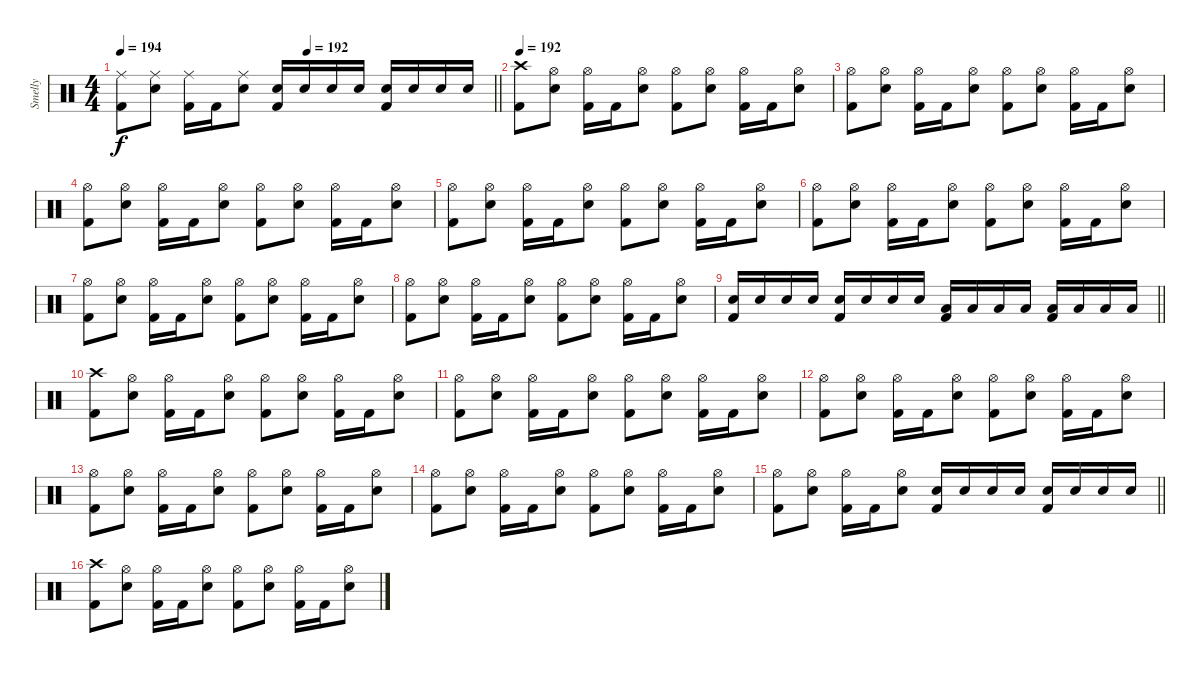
\track ("Smelly" "Smelly") {instrument percussion}
\staff {score}
\articulation defaults
\ts (4 4)
\tempo 194
\tempo (192 0.5)
\clef neutral
\barLineRight lightlight
\ks c
("Ride (middle)" "Kick (hit) 2").8{dy f} ("Ride (middle)" "Electric Snare (hit)").8 ("Ride (middle)" "Kick (hit) 2").16 "Kick (hit) 2".16 ("Ride (middle)" "Electric Snare (hit)").8 ("Electric Snare (hit)" "Kick (hit) 2").16 "Electric Snare (hit)".16 "Electric Snare (hit)".16 "Electric Snare (hit)".16 ("Electric Snare (hit)" "Kick (hit) 2").16 "Electric Snare (hit)".16 "Electric Snare (hit)".16 "Electric Snare (hit)".16 |
\section ("" "")
\tempo 192
("Crash high (hit)" "Kick (hit) 2").8 ("Hi-Hat (open)" "Electric Snare (hit)").8 ("Hi-Hat (open)" "Kick (hit) 2").16 "Kick (hit) 2".16 ("Hi-Hat (open)" "Electric Snare (hit)").8 ("Hi-Hat (open)" "Kick (hit) 2").8 ("Hi-Hat (open)" "Electric Snare (hit)").8 ("Hi-Hat (open)" "Kick (hit) 2").16 "Kick (hit) 2".16 ("Hi-Hat (open)" "Electric Snare (hit)").8 |
("Hi-Hat (open)" "Kick (hit) 2").8 ("Hi-Hat (open)" "Electric Snare (hit)").8 ("Hi-Hat (open)" "Kick (hit) 2").16 "Kick (hit) 2".16 ("Hi-Hat (open)" "Electric Snare (hit)").8 ("Hi-Hat (open)" "Kick (hit) 2").8 ("Hi-Hat (open)" "Electric Snare (hit)").8 ("Hi-Hat (open)" "Kick (hit) 2").16 "Kick (hit) 2".16 ("Hi-Hat (open)" "Electric Snare (hit)").8 |
("Hi-Hat (open)" "Kick (hit) 2").8 ("Hi-Hat (open)" "Electric Snare (hit)").8 ("Hi-Hat (open)" "Kick (hit) 2").16 "Kick (hit) 2".16 ("Hi-Hat (open)" "Electric Snare (hit)").8 ("Hi-Hat (open)" "Kick (hit) 2").8 ("Hi-Hat (open)" "Electric Snare (hit)").8 ("Hi-Hat (open)" "Kick (hit) 2").16 "Kick (hit) 2".16 ("Hi-Hat (open)" "Electric Snare (hit)").8 |
("Hi-Hat (open)" "Kick (hit) 2").8 ("Hi-Hat (open)" "Electric Snare (hit)").8 ("Hi-Hat (open)" "Kick (hit) 2").16 "Kick (hit) 2".16 ("Hi-Hat (open)" "Electric Snare (hit)").8 ("Hi-Hat (open)" "Kick (hit) 2").8 ("Hi-Hat (open)" "Electric Snare (hit)").8 ("Hi-Hat (open)" "Kick (hit) 2").16 "Kick (hit) 2".16 ("Hi-Hat (open)" "Electric Snare (hit)").8 |
("Hi-Hat (open)" "Kick (hit) 2").8 ("Hi-Hat (open)" "Electric Snare (hit)").8 ("Hi-Hat (open)" "Kick (hit) 2").16 "Kick (hit) 2".16 ("Hi-Hat (open)" "Electric Snare (hit)").8 ("Hi-Hat (open)" "Kick (hit) 2").8 ("Hi-Hat (open)" "Electric Snare (hit)").8 ("Hi-Hat (open)" "Kick (hit) 2").16 "Kick (hit) 2".16 ("Hi-Hat (open)" "Electric Snare (hit)").8 |
("Hi-Hat (open)" "Kick (hit) 2").8 ("Hi-Hat (open)" "Electric Snare (hit)").8 ("Hi-Hat (open)" "Kick (hit) 2").16 "Kick (hit) 2".16 ("Hi-Hat (open)" "Electric Snare (hit)").8 ("Hi-Hat (open)" "Kick (hit) 2").8 ("Hi-Hat (open)" "Electric Snare (hit)").8 ("Hi-Hat (open)" "Kick (hit) 2").16 "Kick (hit) 2".16 ("Hi-Hat (open)" "Electric Snare (hit)").8 |
("Hi-Hat (open)" "Kick (hit) 2").8 ("Hi-Hat (open)" "Electric Snare (hit)").8 ("Hi-Hat (open)" "Kick (hit) 2").16 "Kick (hit) 2".16 ("Hi-Hat (open)" "Electric Snare (hit)").8 ("Hi-Hat (open)" "Kick (hit) 2").8 ("Hi-Hat (open)" "Electric Snare (hit)").8 ("Hi-Hat (open)" "Kick (hit) 2").16 "Kick (hit) 2".16 ("Hi-Hat (open)" "Electric Snare (hit)").8 |
\barLineRight lightlight
("Electric Snare (hit)" "Kick (hit) 2").16 "Electric Snare (hit)".16 "Electric Snare (hit)".16 "Electric Snare (hit)".16 ("Electric Snare (hit)" "Kick (hit) 2").16 "Electric Snare (hit)".16 "Electric Snare (hit)".16 "Electric Snare (hit)".16 ("Low Tom (hit)" "Kick (hit) 2").16 "Low Tom (hit)".16 "Low Tom (hit)".16 "Low Tom (hit)".16 ("Low Floor Tom (hit)" "Kick (hit) 2").16 "Low Floor Tom (hit)".16 "Low Floor Tom (hit)".16 "Low Floor Tom (hit)".16 |
\section ("" "")
("Crash high (hit)" "Kick (hit) 2").8 ("Hi-Hat (open)" "Electric Snare (hit)").8 ("Hi-Hat (open)" "Kick (hit) 2").16 "Kick (hit) 2".16 ("Hi-Hat (open)" "Electric Snare (hit)").8 ("Hi-Hat (open)" "Kick (hit) 2").8 ("Hi-Hat (open)" "Electric Snare (hit)").8 ("Hi-Hat (open)" "Kick (hit) 2").16 "Kick (hit) 2".16 ("Hi-Hat (open)" "Electric Snare (hit)").8 |
("Hi-Hat (open)" "Kick (hit) 2").8 ("Hi-Hat (open)" "Electric Snare (hit)").8 ("Hi-Hat (open)" "Kick (hit) 2").16 "Kick (hit) 2".16 ("Hi-Hat (open)" "Electric Snare (hit)").8 ("Hi-Hat (open)" "Kick (hit) 2").8 ("Hi-Hat (open)" "Electric Snare (hit)").8 ("Hi-Hat (open)" "Kick (hit) 2").16 "Kick (hit) 2".16 ("Hi-Hat (open)" "Electric Snare (hit)").8 |
("Hi-Hat (open)" "Kick (hit) 2").8 ("Hi-Hat (open)" "Electric Snare (hit)").8 ("Hi-Hat (open)" "Kick (hit) 2").16 "Kick (hit) 2".16 ("Hi-Hat (open)" "Electric Snare (hit)").8 ("Hi-Hat (open)" "Kick (hit) 2").8 ("Hi-Hat (open)" "Electric Snare (hit)").8 ("Hi-Hat (open)" "Kick (hit) 2").16 "Kick (hit) 2".16 ("Hi-Hat (open)" "Electric Snare (hit)").8 |
("Hi-Hat (open)" "Kick (hit) 2").8 ("Hi-Hat (open)" "Electric Snare (hit)").8 ("Hi-Hat (open)" "Kick (hit) 2").16 "Kick (hit) 2".16 ("Hi-Hat (open)" "Electric Snare (hit)").8 ("Hi-Hat (open)" "Kick (hit) 2").8 ("Hi-Hat (open)" "Electric Snare (hit)").8 ("Hi-Hat (open)" "Kick (hit) 2").16 "Kick (hit) 2".16 ("Hi-Hat (open)" "Electric Snare (hit)").8 |
("Hi-Hat (open)" "Kick (hit) 2").8 ("Hi-Hat (open)" "Electric Snare (hit)").8 ("Hi-Hat (open)" "Kick (hit) 2").16 "Kick (hit) 2".16 ("Hi-Hat (open)" "Electric Snare (hit)").8 ("Hi-Hat (open)" "Kick (hit) 2").8 ("Hi-Hat (open)" "Electric Snare (hit)").8 ("Hi-Hat (open)" "Kick (hit) 2").16 "Kick (hit) 2".16 ("Hi-Hat (open)" "Electric Snare (hit)").8 |
\barLineRight lightlight
("Hi-Hat (open)" "Kick (hit) 2").8 ("Hi-Hat (open)" "Electric Snare (hit)").8 ("Hi-Hat (open)" "Kick (hit) 2").16 "Kick (hit) 2".16 ("Hi-Hat (open)" "Electric Snare (hit)").8 ("Electric Snare (hit)" "Kick (hit) 2").16 "Electric Snare (hit)".16 "Electric Snare (hit)".16 "Electric Snare (hit)".16 ("Electric Snare (hit)" "Kick (hit) 2").16 "Electric Snare (hit)".16 "Electric Snare (hit)".16 "Electric Snare (hit)".16 |
\section ("" "")
("Crash high (hit)" "Kick (hit) 2").8 ("Hi-Hat (open)" "Electric Snare (hit)").8 ("Hi-Hat (open)" "Kick (hit) 2").16 "Kick (hit) 2".16 ("Hi-Hat (open)" "Electric Snare (hit)").8 ("Hi-Hat (open)" "Kick (hit) 2").8 ("Hi-Hat (open)" "Electric Snare (hit)").8 ("Hi-Hat (open)" "Kick (hit) 2").16 "Kick (hit) 2".16 ("Hi-Hat (open)" "Electric Snare (hit)").8
